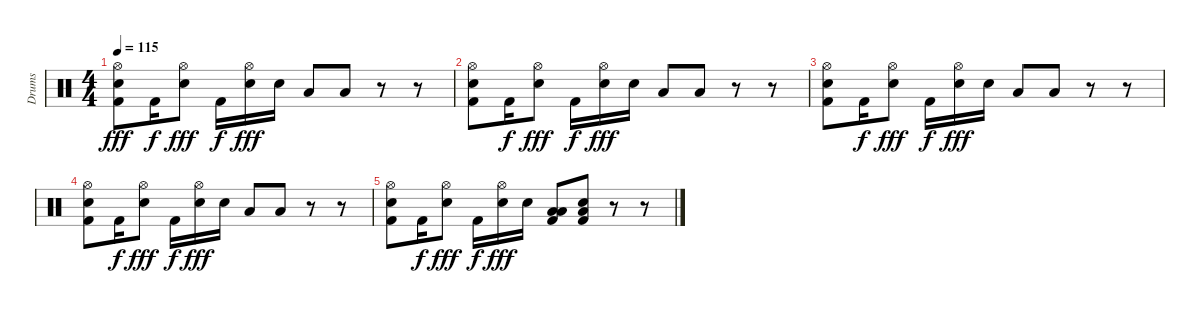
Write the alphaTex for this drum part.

\track ("Drums" "Drums") {instrument percussion}
\staff {score}
\articulation defaults
\ts (4 4)
\tempo 115
\clef neutral
\ks c
("Hi-Hat (open)" "Snare (hit) 2" "Kick (hit) 2").8{dy fff} "Kick (hit) 2".16{dy f} ("Hi-Hat (open)" "Snare (hit) 2").8{dy fff} "Kick (hit) 2".16{dy f} ("Hi-Hat (open)" "Snare (hit) 2").16{dy fff} "Snare (hit) 2".16 "Low Floor Tom (hit)".8 "Low Floor Tom (hit)".8 r.8 r.8 |
("Hi-Hat (open)" "Snare (hit) 2" "Kick (hit) 2").8 "Kick (hit) 2".16{dy f} ("Hi-Hat (open)" "Snare (hit) 2").8{dy fff} "Kick (hit) 2".16{dy f} ("Hi-Hat (open)" "Snare (hit) 2").16{dy fff} "Snare (hit) 2".16 "Low Floor Tom (hit)".8 "Low Floor Tom (hit)".8 r.8 r.8 |
("Hi-Hat (open)" "Snare (hit) 2" "Kick (hit) 2").8 "Kick (hit) 2".16{dy f} ("Hi-Hat (open)" "Snare (hit) 2").8{dy fff} "Kick (hit) 2".16{dy f} ("Hi-Hat (open)" "Snare (hit) 2").16{dy fff} "Snare (hit) 2".16 "Low Floor Tom (hit)".8 "Low Floor Tom (hit)".8 r.8 r.8 |
("Hi-Hat (open)" "Snare (hit) 2" "Kick (hit) 2").8 "Kick (hit) 2".16{dy f} ("Hi-Hat (open)" "Snare (hit) 2").8{dy fff} "Kick (hit) 2".16{dy f} ("Hi-Hat (open)" "Snare (hit) 2").16{dy fff} "Snare (hit) 2".16 "Low Floor Tom (hit)".8 "Low Floor Tom (hit)".8 r.8 r.8 |
("Hi-Hat (open)" "Snare (hit) 2" "Kick (hit) 2").8 "Kick (hit) 2".16{dy f} ("Hi-Hat (open)" "Snare (hit) 2").8{dy fff} "Kick (hit) 2".16{dy f} ("Hi-Hat (open)" "Snare (hit) 2").16{dy fff} "Snare (hit) 2".16 ("Low Tom (hit)" "Low Floor Tom (hit)" "Kick (hit) 2").8 ("Snare (hit) 2" "Low Floor Tom (hit)" "Kick (hit) 2").8 r.8 r.8
